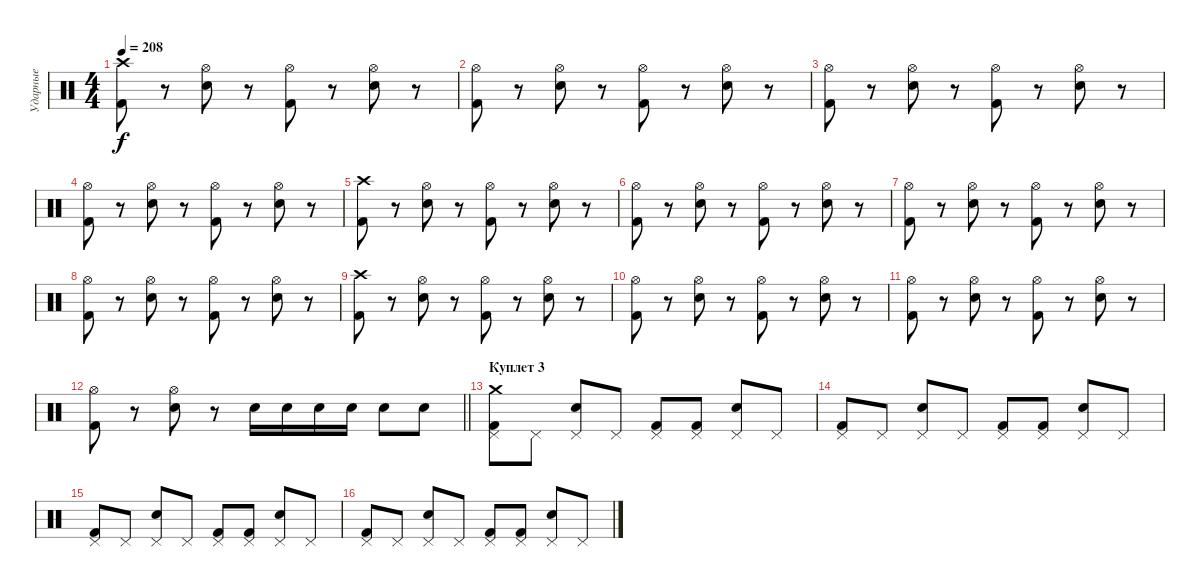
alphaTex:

\track ("Ударные" "Ударные") {instrument percussion}
\staff {score}
\articulation defaults
\ts (4 4)
\tempo 208
\clef neutral
\ks c
("Crash high (hit)" "Kick (hit) 2").8{dy f} r.8 ("Hi-Hat (open)" "Electric Snare (hit)").8 r.8 ("Hi-Hat (open)" "Kick (hit) 2").8 r.8 ("Hi-Hat (open)" "Electric Snare (hit)").8 r.8 |
("Hi-Hat (open)" "Kick (hit) 2").8 r.8 ("Hi-Hat (open)" "Electric Snare (hit)").8 r.8 ("Hi-Hat (open)" "Kick (hit) 2").8 r.8 ("Hi-Hat (open)" "Electric Snare (hit)").8 r.8 |
("Hi-Hat (open)" "Kick (hit) 2").8 r.8 ("Hi-Hat (open)" "Electric Snare (hit)").8 r.8 ("Hi-Hat (open)" "Kick (hit) 2").8 r.8 ("Hi-Hat (open)" "Electric Snare (hit)").8 r.8 |
("Hi-Hat (open)" "Kick (hit) 2").8 r.8 ("Hi-Hat (open)" "Electric Snare (hit)").8 r.8 ("Hi-Hat (open)" "Kick (hit) 2").8 r.8 ("Hi-Hat (open)" "Electric Snare (hit)").8 r.8 |
("Crash high (hit)" "Kick (hit) 2").8 r.8 ("Hi-Hat (open)" "Electric Snare (hit)").8 r.8 ("Hi-Hat (open)" "Kick (hit) 2").8 r.8 ("Hi-Hat (open)" "Electric Snare (hit)").8 r.8 |
("Hi-Hat (open)" "Kick (hit) 2").8 r.8 ("Hi-Hat (open)" "Electric Snare (hit)").8 r.8 ("Hi-Hat (open)" "Kick (hit) 2").8 r.8 ("Hi-Hat (open)" "Electric Snare (hit)").8 r.8 |
("Hi-Hat (open)" "Kick (hit) 2").8 r.8 ("Hi-Hat (open)" "Electric Snare (hit)").8 r.8 ("Hi-Hat (open)" "Kick (hit) 2").8 r.8 ("Hi-Hat (open)" "Electric Snare (hit)").8 r.8 |
("Hi-Hat (open)" "Kick (hit) 2").8 r.8 ("Hi-Hat (open)" "Electric Snare (hit)").8 r.8 ("Hi-Hat (open)" "Kick (hit) 2").8 r.8 ("Hi-Hat (open)" "Electric Snare (hit)").8 r.8 |
("Crash high (hit)" "Kick (hit) 2").8 r.8 ("Hi-Hat (open)" "Electric Snare (hit)").8 r.8 ("Hi-Hat (open)" "Kick (hit) 2").8 r.8 ("Hi-Hat (open)" "Electric Snare (hit)").8 r.8 |
("Hi-Hat (open)" "Kick (hit) 2").8 r.8 ("Hi-Hat (open)" "Electric Snare (hit)").8 r.8 ("Hi-Hat (open)" "Kick (hit) 2").8 r.8 ("Hi-Hat (open)" "Electric Snare (hit)").8 r.8 |
("Hi-Hat (open)" "Kick (hit) 2").8 r.8 ("Hi-Hat (open)" "Electric Snare (hit)").8 r.8 ("Hi-Hat (open)" "Kick (hit) 2").8 r.8 ("Hi-Hat (open)" "Electric Snare (hit)").8 r.8 |
\barLineRight lightlight
("Hi-Hat (open)" "Kick (hit) 2").8 r.8 ("Hi-Hat (open)" "Electric Snare (hit)").8 r.8 "Electric Snare (hit)".16 "Electric Snare (hit)".16 "Electric Snare (hit)".16 "Electric Snare (hit)".16 "Electric Snare (hit)".8 "Electric Snare (hit)".8 |
\section ("" "Куплет 3")
("Pedal Hi-Hat (hit)" "Crash medium (hit)" "Kick (hit) 2").8 "Pedal Hi-Hat (hit)".8 ("Pedal Hi-Hat (hit)" "Electric Snare (hit)").8 "Pedal Hi-Hat (hit)".8 ("Pedal Hi-Hat (hit)" "Kick (hit) 2").8 ("Pedal Hi-Hat (hit)" "Kick (hit) 2").8 ("Pedal Hi-Hat (hit)" "Electric Snare (hit)").8 "Pedal Hi-Hat (hit)".8 |
("Pedal Hi-Hat (hit)" "Kick (hit) 2").8 "Pedal Hi-Hat (hit)".8 ("Pedal Hi-Hat (hit)" "Electric Snare (hit)").8 "Pedal Hi-Hat (hit)".8 ("Pedal Hi-Hat (hit)" "Kick (hit) 2").8 ("Pedal Hi-Hat (hit)" "Kick (hit) 2").8 ("Pedal Hi-Hat (hit)" "Electric Snare (hit)").8 "Pedal Hi-Hat (hit)".8 |
("Pedal Hi-Hat (hit)" "Kick (hit) 2").8 "Pedal Hi-Hat (hit)".8 ("Pedal Hi-Hat (hit)" "Electric Snare (hit)").8 "Pedal Hi-Hat (hit)".8 ("Pedal Hi-Hat (hit)" "Kick (hit) 2").8 ("Pedal Hi-Hat (hit)" "Kick (hit) 2").8 ("Pedal Hi-Hat (hit)" "Electric Snare (hit)").8 "Pedal Hi-Hat (hit)".8 |
("Pedal Hi-Hat (hit)" "Kick (hit) 2").8 "Pedal Hi-Hat (hit)".8 ("Pedal Hi-Hat (hit)" "Electric Snare (hit)").8 "Pedal Hi-Hat (hit)".8 ("Pedal Hi-Hat (hit)" "Kick (hit) 2").8 ("Pedal Hi-Hat (hit)" "Kick (hit) 2").8 ("Pedal Hi-Hat (hit)" "Electric Snare (hit)").8 "Pedal Hi-Hat (hit)".8
